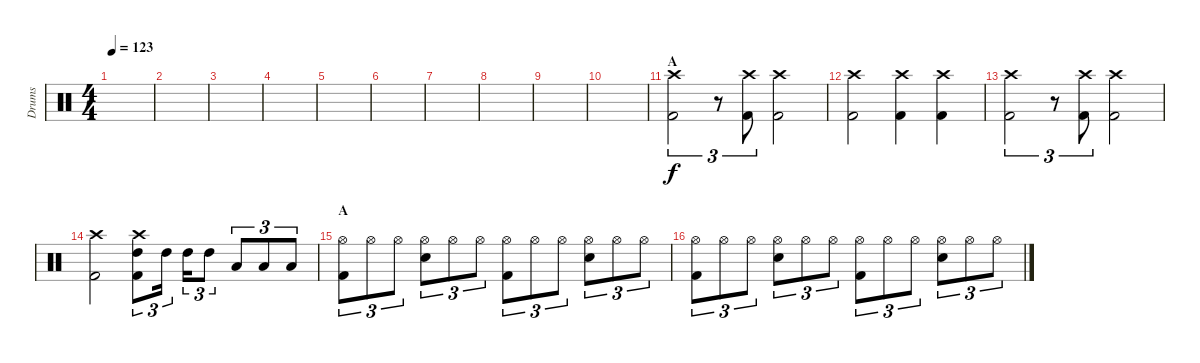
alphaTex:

\track ("Drums" "Drums") {instrument percussion}
\staff {score}
\articulation defaults
\ts (4 4)
\tempo 123
\clef neutral
\ks c
|
|
|
|
|
|
|
|
|
|
\section ("" "A")
("Crash high (hit)" "Kick (hit) 2").2{tu (3 2)} r.8{tu (3 2)} ("Crash high (hit)" "Kick (hit) 2").8{tu (3 2)} ("Crash high (hit)" "Kick (hit) 2").2 |
("Crash high (hit)" "Kick (hit) 2").2 ("Crash high (hit)" "Kick (hit) 2").4 ("Crash high (hit)" "Kick (hit) 2").4 |
("Crash high (hit)" "Kick (hit) 2").2{tu (3 2)} r.8{tu (3 2)} ("Crash high (hit)" "Kick (hit) 2").8{tu (3 2)} ("Crash high (hit)" "Kick (hit) 2").2 |
("Crash high (hit)" "Kick (hit) 2").2 ("Crash high (hit)" "High Tom (hit)" "Kick (hit) 2").8{tu (3 2)} "High Tom (hit)".16{tu (3 2)} "High Tom (hit)".16{tu (3 2)} "High Tom (hit)".8{tu (3 2)} "Low Tom (hit)".8{tu (3 2)} "Low Tom (hit)".8{tu (3 2)} "Low Tom (hit)".8{tu (3 2)} |
\section ("" "A")
("Hi-Hat (open)" "Kick (hit) 2").8{tu (3 2)} "Hi-Hat (open)".8{tu (3 2)} "Hi-Hat (open)".8{tu (3 2)} ("Hi-Hat (open)" "Snare (hit) 2").8{tu (3 2)} "Hi-Hat (open)".8{tu (3 2)} "Hi-Hat (open)".8{tu (3 2)} ("Hi-Hat (open)" "Kick (hit) 2").8{tu (3 2)} "Hi-Hat (open)".8{tu (3 2)} "Hi-Hat (open)".8{tu (3 2)} ("Hi-Hat (open)" "Snare (hit) 2").8{tu (3 2)} "Hi-Hat (open)".8{tu (3 2)} "Hi-Hat (open)".8{tu (3 2)} |
("Hi-Hat (open)" "Kick (hit) 2").8{tu (3 2)} "Hi-Hat (open)".8{tu (3 2)} "Hi-Hat (open)".8{tu (3 2)} ("Hi-Hat (open)" "Snare (hit) 2").8{tu (3 2)} "Hi-Hat (open)".8{tu (3 2)} "Hi-Hat (open)".8{tu (3 2)} ("Hi-Hat (open)" "Kick (hit) 2").8{tu (3 2)} "Hi-Hat (open)".8{tu (3 2)} "Hi-Hat (open)".8{tu (3 2)} ("Hi-Hat (open)" "Snare (hit) 2").8{tu (3 2)} "Hi-Hat (open)".8{tu (3 2)} "Hi-Hat (open)".8{tu (3 2)}
